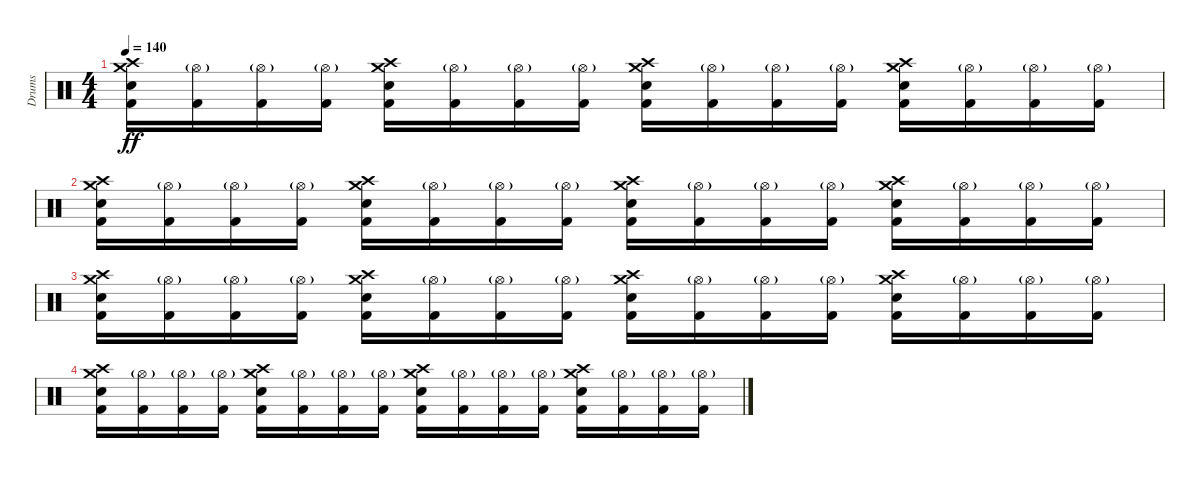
\track ("Drums" "Drums") {instrument percussion}
\staff {score}
\articulation defaults
\ts (4 4)
\tempo 140
\clef neutral
\ks c
("Crash high (hit)" "Kick (hit) 2" "Crash medium (hit)" "Electric Snare (hit)").16{dy ff} ("Hi-Hat (open)"{g} "Kick (hit) 2").16 ("Hi-Hat (open)"{g} "Kick (hit) 2").16 ("Hi-Hat (open)"{g} "Kick (hit) 2").16 ("Crash high (hit)" "Kick (hit) 2" "Crash medium (hit)" "Electric Snare (hit)").16 ("Hi-Hat (open)"{g} "Kick (hit) 2").16 ("Hi-Hat (open)"{g} "Kick (hit) 2").16 ("Hi-Hat (open)"{g} "Kick (hit) 2").16 ("Crash high (hit)" "Kick (hit) 2" "Crash medium (hit)" "Electric Snare (hit)").16 ("Hi-Hat (open)"{g} "Kick (hit) 2").16 ("Hi-Hat (open)"{g} "Kick (hit) 2").16 ("Hi-Hat (open)"{g} "Kick (hit) 2").16 ("Crash high (hit)" "Kick (hit) 2" "Crash medium (hit)" "Electric Snare (hit)").16 ("Hi-Hat (open)"{g} "Kick (hit) 2").16 ("Hi-Hat (open)"{g} "Kick (hit) 2").16 ("Hi-Hat (open)"{g} "Kick (hit) 2").16 |
("Crash high (hit)" "Kick (hit) 2" "Crash medium (hit)" "Electric Snare (hit)").16 ("Hi-Hat (open)"{g} "Kick (hit) 2").16 ("Hi-Hat (open)"{g} "Kick (hit) 2").16 ("Hi-Hat (open)"{g} "Kick (hit) 2").16 ("Crash high (hit)" "Kick (hit) 2" "Crash medium (hit)" "Electric Snare (hit)").16 ("Hi-Hat (open)"{g} "Kick (hit) 2").16 ("Hi-Hat (open)"{g} "Kick (hit) 2").16 ("Hi-Hat (open)"{g} "Kick (hit) 2").16 ("Crash high (hit)" "Kick (hit) 2" "Crash medium (hit)" "Electric Snare (hit)").16 ("Hi-Hat (open)"{g} "Kick (hit) 2").16 ("Hi-Hat (open)"{g} "Kick (hit) 2").16 ("Hi-Hat (open)"{g} "Kick (hit) 2").16 ("Crash high (hit)" "Kick (hit) 2" "Crash medium (hit)" "Electric Snare (hit)").16 ("Hi-Hat (open)"{g} "Kick (hit) 2").16 ("Hi-Hat (open)"{g} "Kick (hit) 2").16 ("Hi-Hat (open)"{g} "Kick (hit) 2").16 |
("Crash high (hit)" "Kick (hit) 2" "Crash medium (hit)" "Electric Snare (hit)").16 ("Hi-Hat (open)"{g} "Kick (hit) 2").16 ("Hi-Hat (open)"{g} "Kick (hit) 2").16 ("Hi-Hat (open)"{g} "Kick (hit) 2").16 ("Crash high (hit)" "Kick (hit) 2" "Crash medium (hit)" "Electric Snare (hit)").16 ("Hi-Hat (open)"{g} "Kick (hit) 2").16 ("Hi-Hat (open)"{g} "Kick (hit) 2").16 ("Hi-Hat (open)"{g} "Kick (hit) 2").16 ("Crash high (hit)" "Kick (hit) 2" "Crash medium (hit)" "Electric Snare (hit)").16 ("Hi-Hat (open)"{g} "Kick (hit) 2").16 ("Hi-Hat (open)"{g} "Kick (hit) 2").16 ("Hi-Hat (open)"{g} "Kick (hit) 2").16 ("Crash high (hit)" "Kick (hit) 2" "Crash medium (hit)" "Electric Snare (hit)").16 ("Hi-Hat (open)"{g} "Kick (hit) 2").16 ("Hi-Hat (open)"{g} "Kick (hit) 2").16 ("Hi-Hat (open)"{g} "Kick (hit) 2").16 |
("Crash high (hit)" "Kick (hit) 2" "Crash medium (hit)" "Electric Snare (hit)").16 ("Hi-Hat (open)"{g} "Kick (hit) 2").16 ("Hi-Hat (open)"{g} "Kick (hit) 2").16 ("Hi-Hat (open)"{g} "Kick (hit) 2").16 ("Crash high (hit)" "Kick (hit) 2" "Crash medium (hit)" "Electric Snare (hit)").16 ("Hi-Hat (open)"{g} "Kick (hit) 2").16 ("Hi-Hat (open)"{g} "Kick (hit) 2").16 ("Hi-Hat (open)"{g} "Kick (hit) 2").16 ("Crash high (hit)" "Kick (hit) 2" "Crash medium (hit)" "Electric Snare (hit)").16 ("Hi-Hat (open)"{g} "Kick (hit) 2").16 ("Hi-Hat (open)"{g} "Kick (hit) 2").16 ("Hi-Hat (open)"{g} "Kick (hit) 2").16 ("Crash high (hit)" "Kick (hit) 2" "Crash medium (hit)" "Electric Snare (hit)").16 ("Hi-Hat (open)"{g} "Kick (hit) 2").16 ("Hi-Hat (open)"{g} "Kick (hit) 2").16 ("Hi-Hat (open)"{g} "Kick (hit) 2").16
